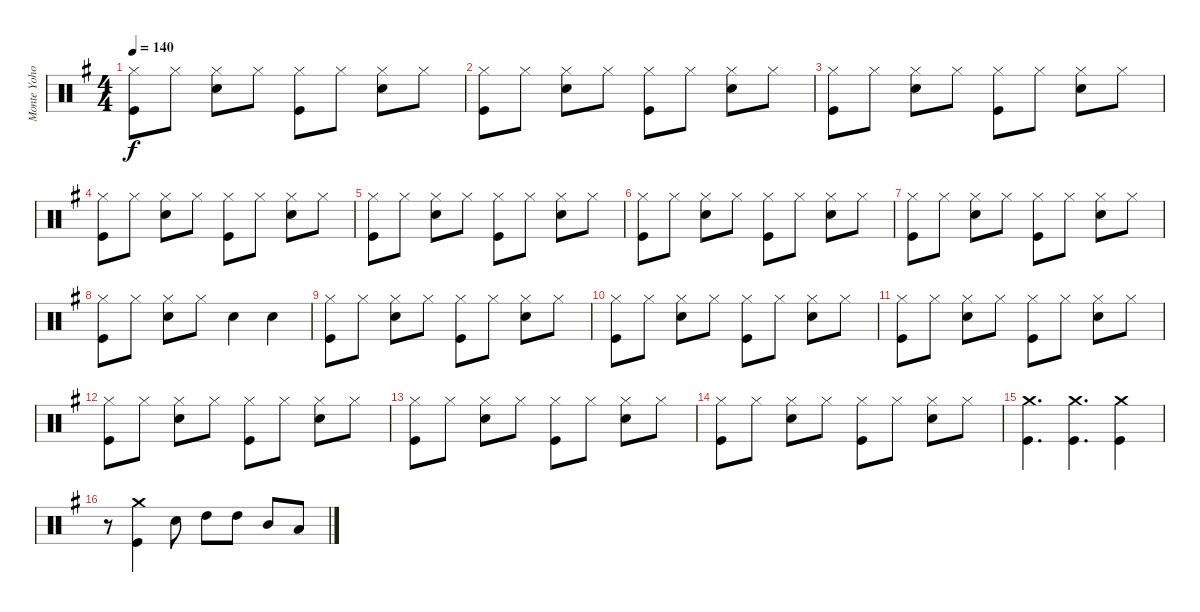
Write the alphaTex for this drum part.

\track ("Monte Yoho Drums" "Monte Yoho") {instrument percussion}
\staff {score}
\articulation defaults
\ts (4 4)
\tempo 140
\clef neutral
\ks g
("Hi-Hat (closed)" "Kick (hit)").8{dy f} "Hi-Hat (closed)".8 ("Hi-Hat (closed)" "Snare (hit) 2").8 "Hi-Hat (closed)".8 ("Hi-Hat (closed)" "Kick (hit)").8 "Hi-Hat (closed)".8 ("Hi-Hat (closed)" "Snare (hit) 2").8 "Hi-Hat (closed)".8 |
("Hi-Hat (closed)" "Kick (hit)").8 "Hi-Hat (closed)".8 ("Hi-Hat (closed)" "Snare (hit) 2").8 "Hi-Hat (closed)".8 ("Hi-Hat (closed)" "Kick (hit)").8 "Hi-Hat (closed)".8 ("Hi-Hat (closed)" "Snare (hit) 2").8 "Hi-Hat (closed)".8 |
("Hi-Hat (closed)" "Kick (hit)").8 "Hi-Hat (closed)".8 ("Hi-Hat (closed)" "Snare (hit) 2").8 "Hi-Hat (closed)".8 ("Hi-Hat (closed)" "Kick (hit)").8 "Hi-Hat (closed)".8 ("Hi-Hat (closed)" "Snare (hit) 2").8 "Hi-Hat (closed)".8 |
("Hi-Hat (closed)" "Kick (hit)").8 "Hi-Hat (closed)".8 ("Hi-Hat (closed)" "Snare (hit) 2").8 "Hi-Hat (closed)".8 ("Hi-Hat (closed)" "Kick (hit)").8 "Hi-Hat (closed)".8 ("Hi-Hat (closed)" "Snare (hit) 2").8 "Hi-Hat (closed)".8 |
("Hi-Hat (closed)" "Kick (hit)").8 "Hi-Hat (closed)".8 ("Hi-Hat (closed)" "Snare (hit) 2").8 "Hi-Hat (closed)".8 ("Hi-Hat (closed)" "Kick (hit)").8 "Hi-Hat (closed)".8 ("Hi-Hat (closed)" "Snare (hit) 2").8 "Hi-Hat (closed)".8 |
("Hi-Hat (closed)" "Kick (hit)").8 "Hi-Hat (closed)".8 ("Hi-Hat (closed)" "Snare (hit) 2").8 "Hi-Hat (closed)".8 ("Hi-Hat (closed)" "Kick (hit)").8 "Hi-Hat (closed)".8 ("Hi-Hat (closed)" "Snare (hit) 2").8 "Hi-Hat (closed)".8 |
("Hi-Hat (closed)" "Kick (hit)").8 "Hi-Hat (closed)".8 ("Hi-Hat (closed)" "Snare (hit) 2").8 "Hi-Hat (closed)".8 ("Hi-Hat (closed)" "Kick (hit)").8 "Hi-Hat (closed)".8 ("Hi-Hat (closed)" "Snare (hit) 2").8 "Hi-Hat (closed)".8 |
("Hi-Hat (closed)" "Kick (hit)").8 "Hi-Hat (closed)".8 ("Hi-Hat (closed)" "Snare (hit) 2").8 "Hi-Hat (closed)".8 "Snare (hit) 2".4 "Snare (hit) 2".4 |
("Hi-Hat (closed)" "Kick (hit)").8 "Hi-Hat (closed)".8 ("Hi-Hat (closed)" "Snare (hit) 2").8 "Hi-Hat (closed)".8 ("Hi-Hat (closed)" "Kick (hit)").8 "Hi-Hat (closed)".8 ("Hi-Hat (closed)" "Snare (hit) 2").8 "Hi-Hat (closed)".8 |
("Hi-Hat (closed)" "Kick (hit)").8 "Hi-Hat (closed)".8 ("Hi-Hat (closed)" "Snare (hit) 2").8 "Hi-Hat (closed)".8 ("Hi-Hat (closed)" "Kick (hit)").8 "Hi-Hat (closed)".8 ("Hi-Hat (closed)" "Snare (hit) 2").8 "Hi-Hat (closed)".8 |
("Hi-Hat (closed)" "Kick (hit)").8 "Hi-Hat (closed)".8 ("Hi-Hat (closed)" "Snare (hit) 2").8 "Hi-Hat (closed)".8 ("Hi-Hat (closed)" "Kick (hit)").8 "Hi-Hat (closed)".8 ("Hi-Hat (closed)" "Snare (hit) 2").8 "Hi-Hat (closed)".8 |
("Hi-Hat (closed)" "Kick (hit)").8 "Hi-Hat (closed)".8 ("Hi-Hat (closed)" "Snare (hit) 2").8 "Hi-Hat (closed)".8 ("Hi-Hat (closed)" "Kick (hit)").8 "Hi-Hat (closed)".8 ("Hi-Hat (closed)" "Snare (hit) 2").8 "Hi-Hat (closed)".8 |
("Hi-Hat (closed)" "Kick (hit)").8 "Hi-Hat (closed)".8 ("Hi-Hat (closed)" "Snare (hit) 2").8 "Hi-Hat (closed)".8 ("Hi-Hat (closed)" "Kick (hit)").8 "Hi-Hat (closed)".8 ("Hi-Hat (closed)" "Snare (hit) 2").8 "Hi-Hat (closed)".8 |
("Hi-Hat (closed)" "Kick (hit)").8 "Hi-Hat (closed)".8 ("Hi-Hat (closed)" "Snare (hit) 2").8 "Hi-Hat (closed)".8 ("Hi-Hat (closed)" "Kick (hit)").8 "Hi-Hat (closed)".8 ("Hi-Hat (closed)" "Snare (hit) 2").8 "Hi-Hat (closed)".8 |
("Crash medium (hit)" "Kick (hit)").4{d} ("Crash medium (hit)" "Kick (hit)").4{d} ("Crash medium (hit)" "Kick (hit)").4 |
r.8 ("Crash medium (hit)" "Kick (hit)").4 "Snare (hit) 2".8 "High Tom (hit)".8 "High Tom (hit)".8 "Mid Tom (hit)".8 "Low Tom (hit)".8
